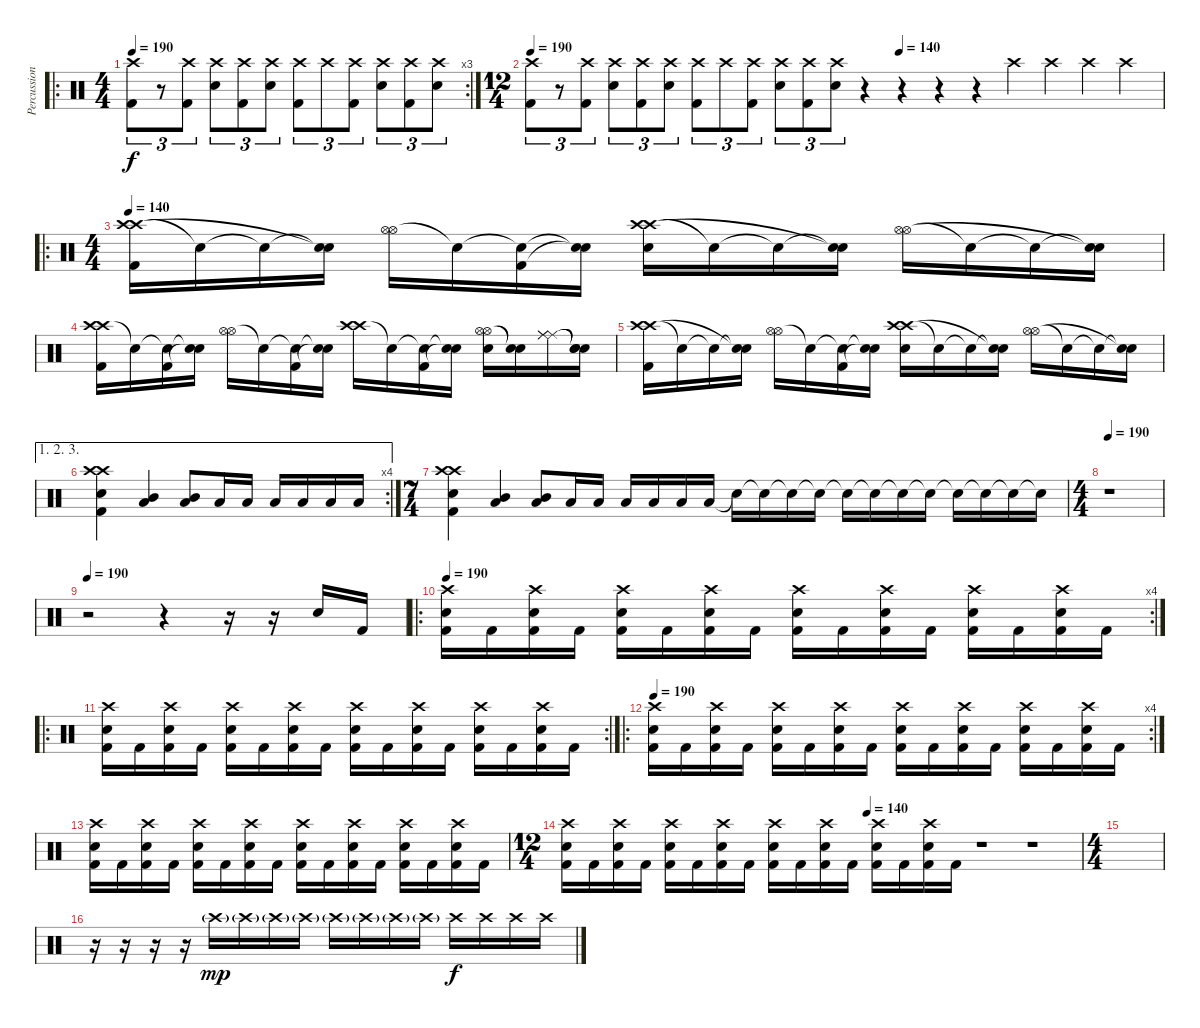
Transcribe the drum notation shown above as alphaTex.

\track ("Percussion" "Percussion") {instrument percussion}
\staff {score}
\articulation defaults
\ro
\rc 3
\ts (4 4)
\tempo 190
\clef neutral
\ks c
("Crash high (hit)" "Kick (hit) 2").8{tu (3 2) dy f} r.8{tu (3 2)} ("Crash high (hit)" "Kick (hit) 2").8{tu (3 2)} ("Crash high (hit)" "Electric Snare (hit)").8{tu (3 2)} ("Crash high (hit)" "Kick (hit) 2").8{tu (3 2)} ("Crash high (hit)" "Electric Snare (hit)").8{tu (3 2)} ("Crash high (hit)" "Kick (hit) 2").8{tu (3 2)} "Crash high (hit)".8{tu (3 2)} ("Crash high (hit)" "Kick (hit) 2").8{tu (3 2)} ("Crash high (hit)" "Electric Snare (hit)").8{tu (3 2)} ("Crash high (hit)" "Kick (hit) 2").8{tu (3 2)} ("Crash high (hit)" "Electric Snare (hit)").8{tu (3 2)} |
\ts (12 4)
\tempo 190
\tempo (140 0.5833333333333334)
("Crash high (hit)" "Kick (hit) 2").8{tu (3 2)} r.8{tu (3 2)} ("Crash high (hit)" "Kick (hit) 2").8{tu (3 2)} ("Crash high (hit)" "Electric Snare (hit)").8{tu (3 2)} ("Crash high (hit)" "Kick (hit) 2").8{tu (3 2)} ("Crash high (hit)" "Electric Snare (hit)").8{tu (3 2)} ("Crash high (hit)" "Kick (hit) 2").8{tu (3 2)} "Crash high (hit)".8{tu (3 2)} ("Crash high (hit)" "Kick (hit) 2").8{tu (3 2)} ("Crash high (hit)" "Electric Snare (hit)").8{tu (3 2)} ("Crash high (hit)" "Kick (hit) 2").8{tu (3 2)} ("Crash high (hit)" "Electric Snare (hit)").8{tu (3 2)} r.4 r.4 r.4 r.4 "Crash high (hit)".4 "Crash high (hit)".4 "Crash high (hit)".4 "Crash high (hit)".4 |
\ro
\ts (4 4)
\tempo 140
("Crash high (hit)" "Crash high (hit)" "Kick (hit) 2").16{volume 14} "Snare (hit)"{t}.16 "Snare (hit)"{t}.16 ("Snare (hit)"{t} "Snare (hit)"{t}).16 ("Hi-Hat (open)" "Hi-Hat (open)").16 "Snare (hit)"{t}.16 ("Snare (hit)"{t} "Kick (hit) 2").16 ("Snare (hit)"{t} "Snare (hit)"{t}).16 ("Crash high (hit)" "Crash high (hit)" "Electric Snare (hit)").16 "Snare (hit)"{t}.16 "Snare (hit)"{t}.16 ("Snare (hit)"{t} "Snare (hit)"{t}).16 ("Hi-Hat (open)" "Hi-Hat (open)").16 "Snare (hit)"{t}.16 "Snare (hit)"{t}.16 ("Snare (hit)"{t} "Snare (hit)"{t}).16 |
("Crash high (hit)" "Crash high (hit)" "Kick (hit) 2").16 "Snare (hit)"{t}.16 ("Snare (hit)"{t} "Kick (hit) 2").16 ("Snare (hit)"{t} "Snare (hit)"{t}).16 ("Hi-Hat (open)" "Hi-Hat (open)").16 "Snare (hit)"{t}.16 ("Snare (hit)"{t} "Kick (hit) 2").16 ("Snare (hit)"{t} "Snare (hit)"{t}).16 ("Crash high (hit)" "Crash high (hit)").16 "Snare (hit)"{t}.16 ("Snare (hit)"{t} "Kick (hit) 2").16 ("Snare (hit)"{t} "Snare (hit)"{t}).16 ("Hi-Hat (open)" "Hi-Hat (open)" "Electric Snare (hit)").16 ("Snare (hit)"{t} "Snare (hit)"{t}).16 ("Ride (middle)" "Ride (middle)" "Ride (middle)").16 ("Snare (hit)"{t} "Snare (hit)"{t} "Snare (hit)"{t}).16 |
("Crash high (hit)" "Crash high (hit)" "Kick (hit) 2").16 "Snare (hit)"{t}.16 "Snare (hit)"{t}.16 ("Snare (hit)"{t} "Snare (hit)"{t}).16 ("Hi-Hat (open)" "Hi-Hat (open)").16 "Snare (hit)"{t}.16 ("Snare (hit)"{t} "Kick (hit) 2").16 ("Snare (hit)"{t} "Snare (hit)"{t}).16 ("Crash high (hit)" "Crash high (hit)" "Electric Snare (hit)").16 "Snare (hit)"{t}.16 "Snare (hit)"{t}.16 ("Snare (hit)"{t} "Snare (hit)"{t}).16 ("Hi-Hat (open)" "Hi-Hat (open)").16 "Snare (hit)"{t}.16 "Snare (hit)"{t}.16 ("Snare (hit)"{t} "Snare (hit)"{t}).16 |
\ae (1 2 3)
\rc 4
("Crash high (hit)" "Crash high (hit)" "Electric Snare (hit)" "Kick (hit) 2").4 ("Low Tom (hit)" "Mid Tom (hit)").4 ("Low Tom (hit)" "Mid Tom (hit)").8 "Low Floor Tom (hit)".16 "Low Floor Tom (hit)".16 "Low Floor Tom (hit)".16 "Low Floor Tom (hit)".16 "Low Floor Tom (hit)".16 "Low Floor Tom (hit)".16 |
\ts (7 4)
("Crash high (hit)" "Crash high (hit)" "Electric Snare (hit)" "Kick (hit) 2").4 ("Low Tom (hit)" "Mid Tom (hit)").4 ("Low Tom (hit)" "Mid Tom (hit)").8 "Low Floor Tom (hit)".16 "Low Floor Tom (hit)".16 "Low Floor Tom (hit)".16 "Low Floor Tom (hit)".16 "Low Floor Tom (hit)".16 "Low Floor Tom (hit)".16 "Snare (hit)"{t}.16 "Snare (hit)"{t}.16 "Snare (hit)"{t}.16 "Snare (hit)"{t}.16 "Snare (hit)"{t}.16 "Snare (hit)"{t}.16 "Snare (hit)"{t}.16 "Snare (hit)"{t}.16 "Snare (hit)"{t}.16 "Snare (hit)"{t}.16 "Snare (hit)"{t}.16 "Snare (hit)"{t}.16 |
\ts (4 4)
\tempo 190
r.1 |
\tempo 190
r.2 r.4 r.16 r.16 "Snare (hit) 2".16 "Kick (hit) 2".16 |
\ro
\rc 4
\tempo 190
("Crash high (hit)" "Electric Snare (hit)" "Kick (hit) 2").16 "Kick (hit) 2".16 ("Crash high (hit)" "Electric Snare (hit)" "Kick (hit) 2").16 "Kick (hit) 2".16 ("Crash high (hit)" "Electric Snare (hit)" "Kick (hit) 2").16 "Kick (hit) 2".16 ("Crash high (hit)" "Electric Snare (hit)" "Kick (hit) 2").16 "Kick (hit) 2".16 ("Crash high (hit)" "Electric Snare (hit)" "Kick (hit) 2").16 "Kick (hit) 2".16 ("Crash high (hit)" "Electric Snare (hit)" "Kick (hit) 2").16 "Kick (hit) 2".16 ("Crash high (hit)" "Electric Snare (hit)" "Kick (hit) 2").16 "Kick (hit) 2".16 ("Crash high (hit)" "Electric Snare (hit)" "Kick (hit) 2").16 "Kick (hit) 2".16 |
\ro
\rc 2
("Crash high (hit)" "Electric Snare (hit)" "Kick (hit) 2").16 "Kick (hit) 2".16 ("Crash high (hit)" "Electric Snare (hit)" "Kick (hit) 2").16 "Kick (hit) 2".16 ("Crash high (hit)" "Electric Snare (hit)" "Kick (hit) 2").16 "Kick (hit) 2".16 ("Crash high (hit)" "Electric Snare (hit)" "Kick (hit) 2").16 "Kick (hit) 2".16 ("Crash high (hit)" "Electric Snare (hit)" "Kick (hit) 2").16 "Kick (hit) 2".16 ("Crash high (hit)" "Electric Snare (hit)" "Kick (hit) 2").16 "Kick (hit) 2".16 ("Crash high (hit)" "Electric Snare (hit)" "Kick (hit) 2").16 "Kick (hit) 2".16 ("Crash high (hit)" "Electric Snare (hit)" "Kick (hit) 2").16 "Kick (hit) 2".16 |
\ro
\rc 4
\tempo 190
("Crash high (hit)" "Electric Snare (hit)" "Kick (hit) 2").16 "Kick (hit) 2".16 ("Crash high (hit)" "Electric Snare (hit)" "Kick (hit) 2").16 "Kick (hit) 2".16 ("Crash high (hit)" "Electric Snare (hit)" "Kick (hit) 2").16 "Kick (hit) 2".16 ("Crash high (hit)" "Electric Snare (hit)" "Kick (hit) 2").16 "Kick (hit) 2".16 ("Crash high (hit)" "Electric Snare (hit)" "Kick (hit) 2").16 "Kick (hit) 2".16 ("Crash high (hit)" "Electric Snare (hit)" "Kick (hit) 2").16 "Kick (hit) 2".16 ("Crash high (hit)" "Electric Snare (hit)" "Kick (hit) 2").16 "Kick (hit) 2".16 ("Crash high (hit)" "Electric Snare (hit)" "Kick (hit) 2").16 "Kick (hit) 2".16 |
("Crash high (hit)" "Electric Snare (hit)" "Kick (hit) 2").16 "Kick (hit) 2".16 ("Crash high (hit)" "Electric Snare (hit)" "Kick (hit) 2").16 "Kick (hit) 2".16 ("Crash high (hit)" "Electric Snare (hit)" "Kick (hit) 2").16 "Kick (hit) 2".16 ("Crash high (hit)" "Electric Snare (hit)" "Kick (hit) 2").16 "Kick (hit) 2".16 ("Crash high (hit)" "Electric Snare (hit)" "Kick (hit) 2").16 "Kick (hit) 2".16 ("Crash high (hit)" "Electric Snare (hit)" "Kick (hit) 2").16 "Kick (hit) 2".16 ("Crash high (hit)" "Electric Snare (hit)" "Kick (hit) 2").16 "Kick (hit) 2".16 ("Crash high (hit)" "Electric Snare (hit)" "Kick (hit) 2").16 "Kick (hit) 2".16 |
\ts (12 4)
\tempo (140 0.5833333333333334)
("Crash high (hit)" "Electric Snare (hit)" "Kick (hit) 2").16 "Kick (hit) 2".16 ("Crash high (hit)" "Electric Snare (hit)" "Kick (hit) 2").16 "Kick (hit) 2".16 ("Crash high (hit)" "Electric Snare (hit)" "Kick (hit) 2").16 "Kick (hit) 2".16 ("Crash high (hit)" "Electric Snare (hit)" "Kick (hit) 2").16 "Kick (hit) 2".16 ("Crash high (hit)" "Electric Snare (hit)" "Kick (hit) 2").16 "Kick (hit) 2".16 ("Crash high (hit)" "Electric Snare (hit)" "Kick (hit) 2").16 "Kick (hit) 2".16 ("Crash high (hit)" "Electric Snare (hit)" "Kick (hit) 2").16 "Kick (hit) 2".16 ("Crash high (hit)" "Electric Snare (hit)" "Kick (hit) 2").16 "Kick (hit) 2".16 r.1 r.1 |
\ts (4 4)
|
r.16 r.16 r.16 r.16 "Crash high (hit)"{g}.16{dy mp volume 9} "Crash high (hit)"{g}.16 "Crash high (hit)"{g}.16 "Crash high (hit)"{g}.16 "Crash high (hit)"{g}.16 "Crash high (hit)"{g}.16 "Crash high (hit)"{g}.16 "Crash high (hit)"{g}.16 "Crash high (hit)".16{dy f} "Crash high (hit)".16 "Crash high (hit)".16 "Crash high (hit)".16
